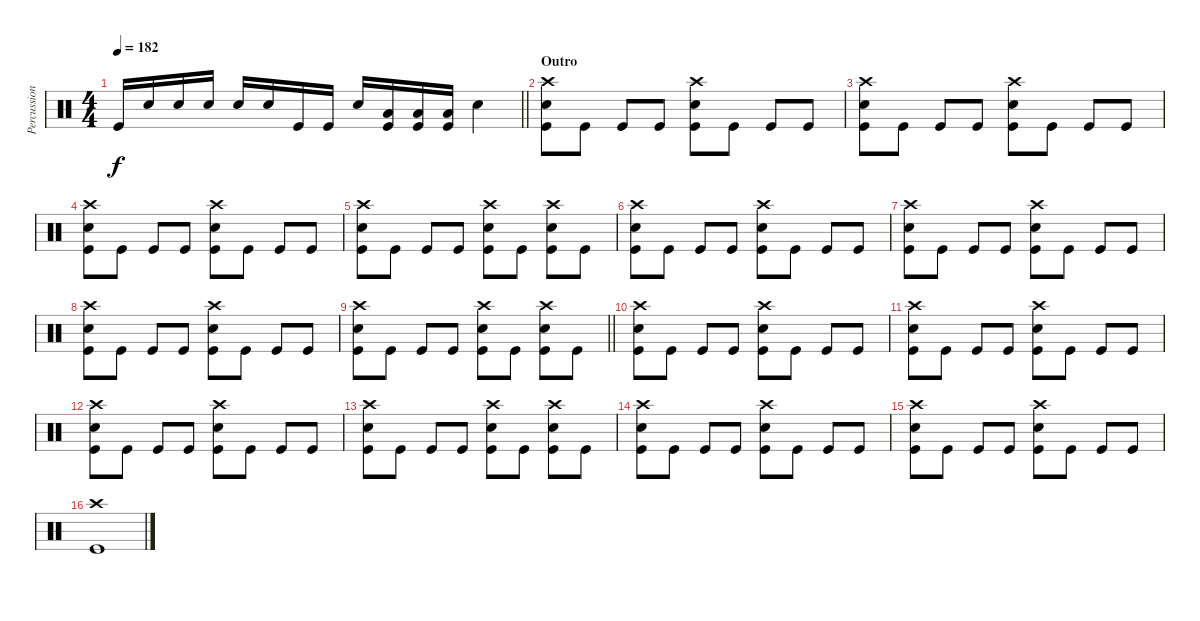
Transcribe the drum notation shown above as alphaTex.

\track ("Percussion" "Percussion") {instrument percussion}
\staff {score}
\articulation defaults
\ts (4 4)
\tempo 182
\clef neutral
\barLineRight lightlight
\ks c "Kick (hit)".16{dy f} "Snare (hit) 2".16 "Snare (hit) 2".16 "Snare (hit) 2".16 "Snare (hit) 2".16 "Snare (hit) 2".16 "Kick (hit)".16 "Kick (hit)".16 "Snare (hit) 2".16
("Low Tom (hit)" "Kick (hit)").16 ("Low Tom (hit)" "Kick (hit)").16 ("Low Tom (hit)" "Kick (hit)").16 "Snare (hit) 2".4 |
\section ("" "Outro")
("Crash high (hit)" "Snare (hit) 2" "Kick (hit)").8 "Kick (hit)".8 "Kick (hit)".8 "Kick (hit)".8 ("Snare (hit) 2" "Crash high (hit)" "Kick (hit)").8 "Kick (hit)".8 "Kick (hit)".8 "Kick (hit)".8 |
("Crash high (hit)" "Snare (hit) 2" "Kick (hit)").8 "Kick (hit)".8 "Kick (hit)".8 "Kick (hit)".8 ("Snare (hit) 2" "Crash high (hit)" "Kick (hit)").8 "Kick (hit)".8 "Kick (hit)".8 "Kick (hit)".8 |
("Crash high (hit)" "Snare (hit) 2" "Kick (hit)").8 "Kick (hit)".8 "Kick (hit)".8 "Kick (hit)".8 ("Snare (hit) 2" "Crash high (hit)" "Kick (hit)").8 "Kick (hit)".8 "Kick (hit)".8 "Kick (hit)".8 |
("Crash high (hit)" "Snare (hit) 2" "Kick (hit)").8 "Kick (hit)".8 "Kick (hit)".8 "Kick (hit)".8 ("Snare (hit) 2" "Crash high (hit)" "Kick (hit)").8 "Kick (hit)".8 ("Snare (hit) 2" "Crash high (hit)" "Kick (hit)").8 "Kick (hit)".8 |
("Crash high (hit)" "Snare (hit) 2" "Kick (hit)").8 "Kick (hit)".8 "Kick (hit)".8 "Kick (hit)".8 ("Snare (hit) 2" "Crash high (hit)" "Kick (hit)").8 "Kick (hit)".8 "Kick (hit)".8 "Kick (hit)".8 |
("Crash high (hit)" "Snare (hit) 2" "Kick (hit)").8 "Kick (hit)".8 "Kick (hit)".8 "Kick (hit)".8 ("Snare (hit) 2" "Crash high (hit)" "Kick (hit)").8 "Kick (hit)".8 "Kick (hit)".8 "Kick (hit)".8 |
("Crash high (hit)" "Snare (hit) 2" "Kick (hit)").8 "Kick (hit)".8 "Kick (hit)".8 "Kick (hit)".8 ("Snare (hit) 2" "Crash high (hit)" "Kick (hit)").8 "Kick (hit)".8 "Kick (hit)".8 "Kick (hit)".8 |
\barLineRight lightlight
("Crash high (hit)" "Snare (hit) 2" "Kick (hit)").8 "Kick (hit)".8 "Kick (hit)".8 "Kick (hit)".8 ("Snare (hit) 2" "Crash high (hit)" "Kick (hit)").8 "Kick (hit)".8 ("Snare (hit) 2" "Crash high (hit)" "Kick (hit)").8 "Kick (hit)".8 |
\section ("" "")
("Crash high (hit)" "Snare (hit) 2" "Kick (hit)").8 "Kick (hit)".8 "Kick (hit)".8 "Kick (hit)".8 ("Snare (hit) 2" "Crash high (hit)" "Kick (hit)").8 "Kick (hit)".8 "Kick (hit)".8 "Kick (hit)".8 |
("Crash high (hit)" "Snare (hit) 2" "Kick (hit)").8 "Kick (hit)".8 "Kick (hit)".8 "Kick (hit)".8 ("Snare (hit) 2" "Crash high (hit)" "Kick (hit)").8 "Kick (hit)".8 "Kick (hit)".8 "Kick (hit)".8 |
("Crash high (hit)" "Snare (hit) 2" "Kick (hit)").8 "Kick (hit)".8 "Kick (hit)".8 "Kick (hit)".8 ("Snare (hit) 2" "Crash high (hit)" "Kick (hit)").8 "Kick (hit)".8 "Kick (hit)".8 "Kick (hit)".8 |
("Crash high (hit)" "Snare (hit) 2" "Kick (hit)").8 "Kick (hit)".8 "Kick (hit)".8 "Kick (hit)".8 ("Snare (hit) 2" "Crash high (hit)" "Kick (hit)").8 "Kick (hit)".8 ("Snare (hit) 2" "Crash high (hit)" "Kick (hit)").8 "Kick (hit)".8 |
("Crash high (hit)" "Snare (hit) 2" "Kick (hit)").8 "Kick (hit)".8 "Kick (hit)".8 "Kick (hit)".8 ("Snare (hit) 2" "Crash high (hit)" "Kick (hit)").8 "Kick (hit)".8 "Kick (hit)".8 "Kick (hit)".8 |
("Crash high (hit)" "Snare (hit) 2" "Kick (hit)").8 "Kick (hit)".8 "Kick (hit)".8 "Kick (hit)".8 ("Snare (hit) 2" "Crash high (hit)" "Kick (hit)").8 "Kick (hit)".8 "Kick (hit)".8 "Kick (hit)".8 |
("Crash high (hit)" "Kick (hit)").1
